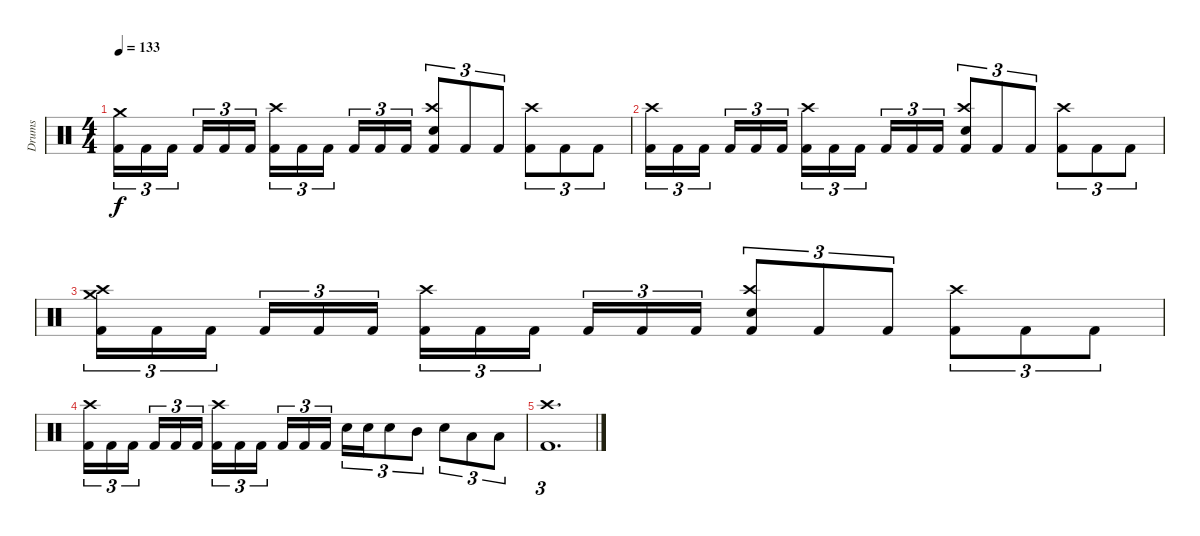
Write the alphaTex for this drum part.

\track ("Drums" "Drums") {instrument percussion}
\staff {score}
\articulation defaults
\ts (4 4)
\tempo 133
\clef neutral
\ks c
("Crash medium (hit)" "Kick (hit) 2").16{tu (3 2) dy f} "Kick (hit) 2".16{tu (3 2)} "Kick (hit) 2".16{tu (3 2) beam splitsecondary} "Kick (hit) 2".16{tu (3 2)} "Kick (hit) 2".16{tu (3 2)} "Kick (hit) 2".16{tu (3 2)} ("Crash high (hit)" "Kick (hit) 2").16{tu (3 2)} "Kick (hit) 2".16{tu (3 2)} "Kick (hit) 2".16{tu (3 2) beam splitsecondary} "Kick (hit) 2".16{tu (3 2)} "Kick (hit) 2".16{tu (3 2)} "Kick (hit) 2".16{tu (3 2)} ("Crash high (hit)" "Snare (hit) 2" "Kick (hit) 2").8{tu (3 2)} "Kick (hit) 2".8{tu (3 2)} "Kick (hit) 2".8{tu (3 2)} ("Crash high (hit)" "Kick (hit) 2").8{tu (3 2)} "Kick (hit) 2".8{tu (3 2)} "Kick (hit) 2".8{tu (3 2)} |
("Crash high (hit)" "Kick (hit) 2").16{tu (3 2)} "Kick (hit) 2".16{tu (3 2)} "Kick (hit) 2".16{tu (3 2) beam splitsecondary} "Kick (hit) 2".16{tu (3 2)} "Kick (hit) 2".16{tu (3 2)} "Kick (hit) 2".16{tu (3 2)} ("Crash high (hit)" "Kick (hit) 2").16{tu (3 2)} "Kick (hit) 2".16{tu (3 2)} "Kick (hit) 2".16{tu (3 2) beam splitsecondary} "Kick (hit) 2".16{tu (3 2)} "Kick (hit) 2".16{tu (3 2)} "Kick (hit) 2".16{tu (3 2)} ("Crash high (hit)" "Snare (hit) 2" "Kick (hit) 2").8{tu (3 2)} "Kick (hit) 2".8{tu (3 2)} "Kick (hit) 2".8{tu (3 2)} ("Crash high (hit)" "Kick (hit) 2").8{tu (3 2)} "Kick (hit) 2".8{tu (3 2)} "Kick (hit) 2".8{tu (3 2)} |
("Crash high (hit)" "Crash medium (hit)" "Kick (hit) 2").16{tu (3 2)} "Kick (hit) 2".16{tu (3 2)} "Kick (hit) 2".16{tu (3 2) beam splitsecondary} "Kick (hit) 2".16{tu (3 2)} "Kick (hit) 2".16{tu (3 2)} "Kick (hit) 2".16{tu (3 2)} ("Crash high (hit)" "Kick (hit) 2").16{tu (3 2)} "Kick (hit) 2".16{tu (3 2)} "Kick (hit) 2".16{tu (3 2) beam splitsecondary} "Kick (hit) 2".16{tu (3 2)} "Kick (hit) 2".16{tu (3 2)} "Kick (hit) 2".16{tu (3 2)} ("Crash high (hit)" "Snare (hit) 2" "Kick (hit) 2").8{tu (3 2)} "Kick (hit) 2".8{tu (3 2)} "Kick (hit) 2".8{tu (3 2)} ("Crash high (hit)" "Kick (hit) 2").8{tu (3 2)} "Kick (hit) 2".8{tu (3 2)} "Kick (hit) 2".8{tu (3 2)} |
("Crash high (hit)" "Kick (hit) 2").16{tu (3 2)} "Kick (hit) 2".16{tu (3 2)} "Kick (hit) 2".16{tu (3 2) beam splitsecondary} "Kick (hit) 2".16{tu (3 2)} "Kick (hit) 2".16{tu (3 2)} "Kick (hit) 2".16{tu (3 2)} ("Crash high (hit)" "Kick (hit) 2").16{tu (3 2)} "Kick (hit) 2".16{tu (3 2)} "Kick (hit) 2".16{tu (3 2) beam splitsecondary} "Kick (hit) 2".16{tu (3 2)} "Kick (hit) 2".16{tu (3 2)} "Kick (hit) 2".16{tu (3 2)} "Snare (hit) 2".16{tu (3 2)} "Snare (hit) 2".16{tu (3 2)} "Snare (hit) 2".8{tu (3 2)} "Mid Tom (hit)".8{tu (3 2)} "Snare (hit) 2".8{tu (3 2)} "Low Tom (hit)".8{tu (3 2)} "Low Tom (hit)".8{tu (3 2)} |
("Crash high (hit)" "Kick (hit) 2").1{d tu (3 2)}
